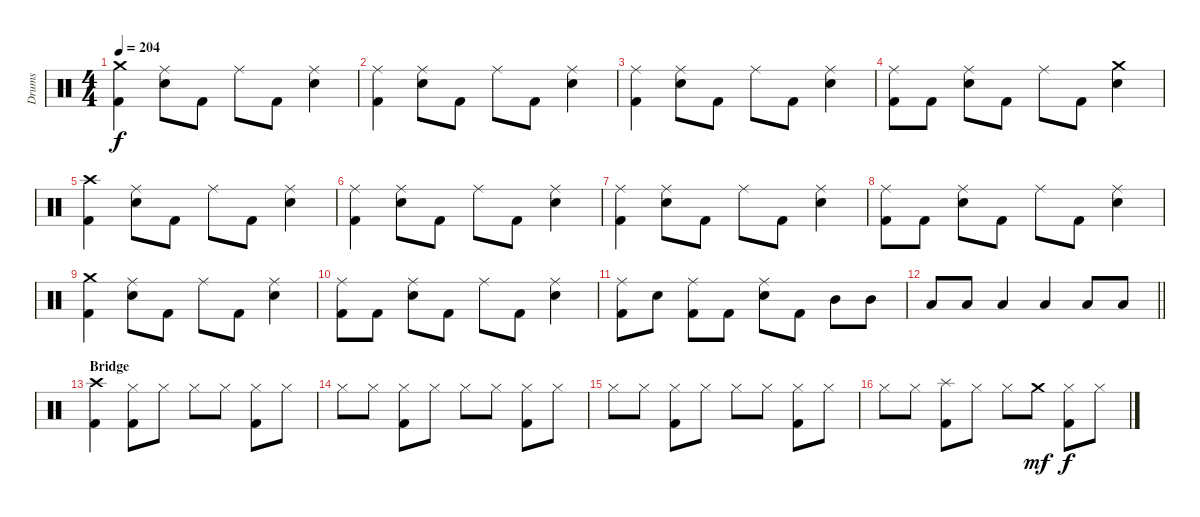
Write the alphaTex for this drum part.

\track ("Drums" "Drums") {instrument percussion}
\staff {score}
\articulation defaults
\ts (4 4)
\tempo 204
\clef neutral
\ks c
("Crash medium (hit)" "Kick (hit) 2").4{dy f} ("Ride (middle)" "Snare (hit) 2").8 "Kick (hit) 2".8 "Ride (middle)".8 "Kick (hit) 2".8 ("Ride (middle)" "Snare (hit) 2").4 |
("Ride (middle)" "Kick (hit) 2").4 ("Ride (middle)" "Snare (hit) 2").8 "Kick (hit) 2".8 "Ride (middle)".8 "Kick (hit) 2".8 ("Ride (middle)" "Snare (hit) 2").4 |
("Ride (middle)" "Kick (hit) 2").4 ("Ride (middle)" "Snare (hit) 2").8 "Kick (hit) 2".8 "Ride (middle)".8 "Kick (hit) 2".8 ("Ride (middle)" "Snare (hit) 2").4 |
("Ride (middle)" "Kick (hit) 2").8 "Kick (hit) 2".8 ("Ride (middle)" "Snare (hit) 2").8 "Kick (hit) 2".8 "Ride (middle)".8 "Kick (hit) 2".8 ("Crash medium (hit)" "Snare (hit) 2").4 |
("Crash high (hit)" "Kick (hit) 2").4 ("Ride (middle)" "Snare (hit) 2").8 "Kick (hit) 2".8 "Ride (middle)".8 "Kick (hit) 2".8 ("Ride (middle)" "Snare (hit) 2").4 |
("Ride (middle)" "Kick (hit) 2").4 ("Ride (middle)" "Snare (hit) 2").8 "Kick (hit) 2".8 "Ride (middle)".8 "Kick (hit) 2".8 ("Ride (middle)" "Snare (hit) 2").4 |
("Ride (middle)" "Kick (hit) 2").4 ("Ride (middle)" "Snare (hit) 2").8 "Kick (hit) 2".8 "Ride (middle)".8 "Kick (hit) 2".8 ("Ride (middle)" "Snare (hit) 2").4 |
("Ride (middle)" "Kick (hit) 2").8 "Kick (hit) 2".8 ("Ride (middle)" "Snare (hit) 2").8 "Kick (hit) 2".8 "Ride (middle)".8 "Kick (hit) 2".8 ("Ride (middle)" "Snare (hit) 2").4 |
("Crash medium (hit)" "Kick (hit) 2").4 ("Ride (middle)" "Snare (hit) 2").8 "Kick (hit) 2".8 "Ride (middle)".8 "Kick (hit) 2".8 ("Ride (middle)" "Snare (hit) 2").4 |
("Ride (middle)" "Kick (hit) 2").8 "Kick (hit) 2".8 ("Ride (middle)" "Snare (hit) 2").8 "Kick (hit) 2".8 "Ride (middle)".8 "Kick (hit) 2".8 ("Ride (middle)" "Snare (hit) 2").4 |
("Ride (middle)" "Kick (hit) 2").8 "Snare (hit) 2".8 ("Ride (middle)" "Kick (hit) 2").8 "Kick (hit) 2".8 ("Ride (middle)" "Snare (hit) 2").8 "Kick (hit) 2".8 "Mid Tom (hit)".8 "Mid Tom (hit)".8 |
\barLineRight lightlight "Low Tom (hit)".8 "Low Tom (hit)".8 "Low Tom (hit)".4 "Low Tom (hit)".4 "Low Tom (hit)".8 "Low Tom (hit)".8
|
\section ("" "Bridge")
("Crash high (hit)" "Kick (hit) 2").4 ("Hi-Hat (closed)" "Kick (hit) 2").8 "Hi-Hat (closed)".8 "Hi-Hat (closed)".8 "Hi-Hat (closed)".8 ("Hi-Hat (closed)" "Kick (hit) 2").8 "Hi-Hat (closed)".8 |
"Hi-Hat (closed)".8 "Hi-Hat (closed)".8 ("Hi-Hat (closed)" "Kick (hit) 2").8 "Hi-Hat (closed)".8 "Hi-Hat (closed)".8 "Hi-Hat (closed)".8 ("Hi-Hat (closed)" "Kick (hit) 2").8 "Hi-Hat (closed)".8 |
"Hi-Hat (closed)".8 "Hi-Hat (closed)".8 ("Hi-Hat (closed)" "Kick (hit) 2").8 "Hi-Hat (closed)".8 "Hi-Hat (closed)".8 "Hi-Hat (closed)".8 ("Hi-Hat (closed)" "Kick (hit) 2").8 "Hi-Hat (closed)".8 |
"Hi-Hat (closed)".8 "Hi-Hat (closed)".8 ("Splash (hit)" "Kick (hit) 2").8 "Hi-Hat (closed)".8 "Hi-Hat (closed)".8 "Crash medium (hit)".8{dy mf} ("Hi-Hat (closed)" "Kick (hit) 2").8{dy f} "Hi-Hat (closed)".8
